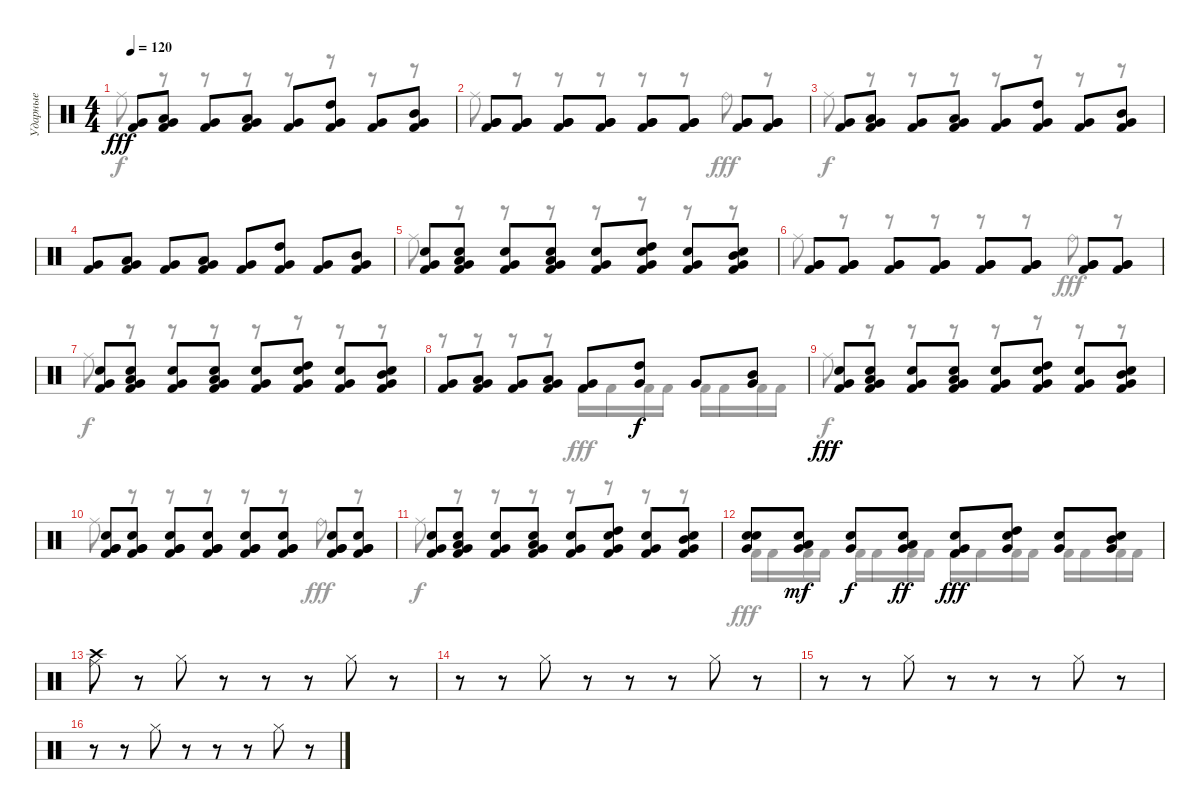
\track ("Ударные" "Ударные") {instrument percussion}
\staff {score}
\articulation defaults
\voice
\ts (4 4)
\tempo 120
\clef neutral
\ks c
("Very Low Tom (hit)" "Kick (hit) 2").8{dy fff} ("Low Tom (hit)" "Very Low Tom (hit)" "Kick (hit) 2").8 ("Very Low Tom (hit)" "Kick (hit) 2").8 ("Low Floor Tom (hit)" "Very Low Tom (hit)" "Kick (hit) 2").8 ("Very Low Tom (hit)" "Kick (hit) 2").8 ("High Tom (hit)" "Very Low Tom (hit)" "Kick (hit) 2").8 ("Very Low Tom (hit)" "Kick (hit) 2").8 ("Mid Tom (hit)" "Very Low Tom (hit)" "Kick (hit) 2").8 |
("Very Low Tom (hit)" "Very Low Tom (hit)" "Kick (hit) 2").8 ("Very Low Tom (hit)" "Very Low Tom (hit)" "Kick (hit) 2").8 ("Very Low Tom (hit)" "Very Low Tom (hit)" "Kick (hit) 2").8 ("Very Low Tom (hit)" "Very Low Tom (hit)" "Kick (hit) 2").8 ("Very Low Tom (hit)" "Very Low Tom (hit)" "Kick (hit) 2").8 ("Very Low Tom (hit)" "Very Low Tom (hit)" "Kick (hit) 2").8 ("Very Low Tom (hit)" "Very Low Tom (hit)" "Kick (hit) 2").8 ("Very Low Tom (hit)" "Very Low Tom (hit)" "Kick (hit) 2").8 |
("Very Low Tom (hit)" "Kick (hit) 2").8 ("Low Tom (hit)" "Very Low Tom (hit)" "Kick (hit) 2").8 ("Very Low Tom (hit)" "Kick (hit) 2").8 ("Low Floor Tom (hit)" "Very Low Tom (hit)" "Kick (hit) 2").8 ("Very Low Tom (hit)" "Kick (hit) 2").8 ("High Tom (hit)" "Very Low Tom (hit)" "Kick (hit) 2").8 ("Very Low Tom (hit)" "Kick (hit) 2").8 ("Mid Tom (hit)" "Very Low Tom (hit)" "Kick (hit) 2").8 |
("Very Low Tom (hit)" "Kick (hit) 2").8 ("Low Tom (hit)" "Very Low Tom (hit)" "Kick (hit) 2").8 ("Very Low Tom (hit)" "Kick (hit) 2").8 ("Low Floor Tom (hit)" "Very Low Tom (hit)" "Kick (hit) 2").8 ("Very Low Tom (hit)" "Kick (hit) 2").8 ("High Tom (hit)" "Very Low Tom (hit)" "Kick (hit) 2").8 ("Very Low Tom (hit)" "Kick (hit) 2").8 ("Mid Tom (hit)" "Very Low Tom (hit)" "Kick (hit) 2").8 |
("Very Low Tom (hit)" "Snare (hit) 2" "Kick (hit) 2").8 ("Low Tom (hit)" "Very Low Tom (hit)" "Snare (hit) 2" "Kick (hit) 2").8 ("Very Low Tom (hit)" "Snare (hit) 2" "Kick (hit) 2").8 ("Low Floor Tom (hit)" "Very Low Tom (hit)" "Snare (hit) 2" "Kick (hit) 2").8 ("Very Low Tom (hit)" "Snare (hit) 2" "Kick (hit) 2").8 ("High Tom (hit)" "Very Low Tom (hit)" "Snare (hit) 2" "Kick (hit) 2").8 ("Very Low Tom (hit)" "Snare (hit) 2" "Kick (hit) 2").8 ("Mid Tom (hit)" "Very Low Tom (hit)" "Snare (hit) 2" "Kick (hit) 2").8 |
("Very Low Tom (hit)" "Very Low Tom (hit)" "Kick (hit) 2").8 ("Very Low Tom (hit)" "Very Low Tom (hit)" "Kick (hit) 2").8 ("Very Low Tom (hit)" "Very Low Tom (hit)" "Kick (hit) 2").8 ("Very Low Tom (hit)" "Very Low Tom (hit)" "Kick (hit) 2").8 ("Very Low Tom (hit)" "Very Low Tom (hit)" "Kick (hit) 2").8 ("Very Low Tom (hit)" "Very Low Tom (hit)" "Kick (hit) 2").8 ("Very Low Tom (hit)" "Very Low Tom (hit)" "Kick (hit) 2").8 ("Very Low Tom (hit)" "Very Low Tom (hit)" "Kick (hit) 2").8 |
("Very Low Tom (hit)" "Snare (hit) 2" "Kick (hit) 2").8 ("Low Tom (hit)" "Very Low Tom (hit)" "Snare (hit) 2" "Kick (hit) 2").8 ("Very Low Tom (hit)" "Snare (hit) 2" "Kick (hit) 2").8 ("Low Floor Tom (hit)" "Very Low Tom (hit)" "Snare (hit) 2" "Kick (hit) 2").8 ("Very Low Tom (hit)" "Snare (hit) 2" "Kick (hit) 2").8 ("High Tom (hit)" "Very Low Tom (hit)" "Snare (hit) 2" "Kick (hit) 2").8 ("Very Low Tom (hit)" "Snare (hit) 2" "Kick (hit) 2").8 ("Mid Tom (hit)" "Very Low Tom (hit)" "Snare (hit) 2" "Kick (hit) 2").8 |
("Very Low Tom (hit)" "Kick (hit) 2").8 ("Low Tom (hit)" "Very Low Tom (hit)" "Kick (hit) 2").8 ("Very Low Tom (hit)" "Kick (hit) 2").8 ("Low Floor Tom (hit)" "Very Low Tom (hit)" "Kick (hit) 2").8 ("Very Low Tom (hit)" "Kick (hit) 2").8 ("High Tom (hit)" "Very Low Tom (hit)").8{dy f} "Very Low Tom (hit)".8 ("Mid Tom (hit)" "Very Low Tom (hit)").8 |
("Very Low Tom (hit)" "Snare (hit) 2" "Kick (hit) 2").8{dy fff} ("Low Tom (hit)" "Very Low Tom (hit)" "Snare (hit) 2" "Kick (hit) 2").8 ("Very Low Tom (hit)" "Snare (hit) 2" "Kick (hit) 2").8 ("Low Floor Tom (hit)" "Very Low Tom (hit)" "Snare (hit) 2" "Kick (hit) 2").8 ("Very Low Tom (hit)" "Snare (hit) 2" "Kick (hit) 2").8 ("High Tom (hit)" "Very Low Tom (hit)" "Snare (hit) 2" "Kick (hit) 2").8 ("Very Low Tom (hit)" "Snare (hit) 2" "Kick (hit) 2").8 ("Mid Tom (hit)" "Very Low Tom (hit)" "Snare (hit) 2" "Kick (hit) 2").8 |
("Very Low Tom (hit)" "Very Low Tom (hit)" "Snare (hit) 2" "Kick (hit) 2").8 ("Very Low Tom (hit)" "Very Low Tom (hit)" "Snare (hit) 2" "Kick (hit) 2").8 ("Very Low Tom (hit)" "Very Low Tom (hit)" "Snare (hit) 2" "Kick (hit) 2").8 ("Very Low Tom (hit)" "Very Low Tom (hit)" "Snare (hit) 2" "Kick (hit) 2").8 ("Very Low Tom (hit)" "Very Low Tom (hit)" "Snare (hit) 2" "Kick (hit) 2").8 ("Very Low Tom (hit)" "Very Low Tom (hit)" "Snare (hit) 2" "Kick (hit) 2").8 ("Very Low Tom (hit)" "Very Low Tom (hit)" "Snare (hit) 2" "Kick (hit) 2").8 ("Very Low Tom (hit)" "Very Low Tom (hit)" "Snare (hit) 2" "Kick (hit) 2").8 |
("Very Low Tom (hit)" "Snare (hit) 2" "Kick (hit) 2").8 ("Low Tom (hit)" "Very Low Tom (hit)" "Snare (hit) 2" "Kick (hit) 2").8 ("Very Low Tom (hit)" "Snare (hit) 2" "Kick (hit) 2").8 ("Low Floor Tom (hit)" "Very Low Tom (hit)" "Snare (hit) 2" "Kick (hit) 2").8 ("Very Low Tom (hit)" "Snare (hit) 2" "Kick (hit) 2").8 ("High Tom (hit)" "Very Low Tom (hit)" "Snare (hit) 2" "Kick (hit) 2").8 ("Very Low Tom (hit)" "Snare (hit) 2" "Kick (hit) 2").8 ("Mid Tom (hit)" "Very Low Tom (hit)" "Snare (hit) 2" "Kick (hit) 2").8 |
("Very Low Tom (hit)" "Snare (hit) 2" "Snare (hit)").8 ("Low Tom (hit)" "Very Low Tom (hit)" "Snare (hit) 2").8{dy mf} ("Very Low Tom (hit)" "Snare (hit) 2").8{dy f} ("Low Floor Tom (hit)" "Very Low Tom (hit)" "Snare (hit) 2").8{dy ff} ("Very Low Tom (hit)" "Snare (hit) 2" "Kick (hit) 2").8{dy fff} ("High Tom (hit)" "Very Low Tom (hit)" "Snare (hit) 2").8 ("Very Low Tom (hit)" "Snare (hit) 2").8 ("Mid Tom (hit)" "Very Low Tom (hit)" "Snare (hit) 2").8 |
("Crash high (hit)" "Ride (middle)").8 r.8 "Hi-Hat (closed)".8 r.8 r.8 r.8 "Hi-Hat (closed)".8 r.8 |
r.8 r.8 "Hi-Hat (closed)".8 r.8 r.8 r.8 "Hi-Hat (closed)".8 r.8 |
r.8 r.8 "Hi-Hat (closed)".8 r.8 r.8 r.8 "Hi-Hat (closed)".8 r.8 |
r.8 r.8 "Hi-Hat (closed)".8 r.8 r.8 r.8 "Hi-Hat (closed)".8 r.8
\voice
\clef neutral
\ottava regular
\simile none
\ks c "Ride (middle)".8{dy f}
r.8 r.8 r.8 r.8 r.8 r.8 r.8 |
"Ride (middle)".8 r.8 r.8 r.8 r.8 r.8 "Ride (bell)".8{dy fff} r.8 |
"Ride (middle)".8{dy f} r.8 r.8 r.8 r.8 r.8 r.8 r.8 |
|
"Ride (middle)".8 r.8 r.8 r.8 r.8 r.8 r.8 r.8 |
"Ride (middle)".8 r.8 r.8 r.8 r.8 r.8 "Ride (bell)".8{dy fff} r.8 |
"Ride (middle)".8{dy f} r.8 r.8 r.8 r.8 r.8 r.8 r.8 |
r.8 r.8 r.8 r.8 "Kick (hit) 2".16{dy fff} "Kick (hit) 2".16 "Kick (hit) 2".16 "Kick (hit) 2".16 "Kick (hit) 2".16 "Kick (hit) 2".16 "Kick (hit) 2".16 "Kick (hit) 2".16 |
"Ride (middle)".8{dy f} r.8 r.8 r.8 r.8 r.8 r.8 r.8 |
"Ride (middle)".8 r.8 r.8 r.8 r.8 r.8 "Ride (bell)".8{dy fff} r.8 |
"Ride (middle)".8{dy f} r.8 r.8 r.8 r.8 r.8 r.8 r.8 |
"Kick (hit) 2".16{dy fff} "Kick (hit) 2".16 "Kick (hit) 2".16 "Kick (hit) 2".16 "Kick (hit) 2".16 "Kick (hit) 2".16 "Kick (hit) 2".16 "Kick (hit) 2".16 "Kick (hit) 2".16 "Kick (hit) 2".16 "Kick (hit) 2".16 "Kick (hit) 2".16 "Kick (hit) 2".16 "Kick (hit) 2".16 "Kick (hit) 2".16 "Kick (hit) 2".16 |
|
|
|
